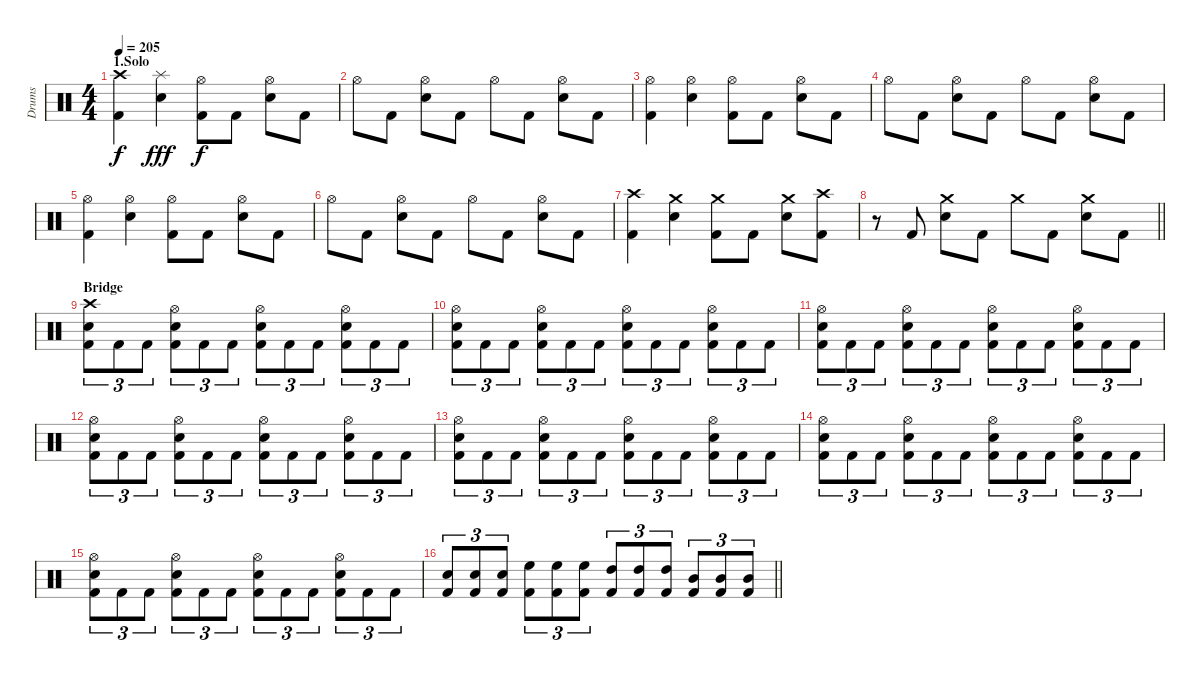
\track ("Drums" "Drums") {instrument percussion}
\staff {score}
\articulation defaults
\ts (4 4)
\section ("" "1.Solo")
\tempo 205
\clef neutral
\ks c
("Crash high (hit)" "Kick (hit) 2").4{dy f} ("Splash (hit)" "Electric Snare (hit)").4{dy fff} ("Hi-Hat (open)" "Kick (hit) 2").8{dy f} "Kick (hit) 2".8 ("Hi-Hat (open)" "Electric Snare (hit)").8 "Kick (hit) 2".8 |
"Hi-Hat (open)".8 "Kick (hit) 2".8 ("Hi-Hat (open)" "Electric Snare (hit)").8 "Kick (hit) 2".8 "Hi-Hat (open)".8 "Kick (hit) 2".8 ("Hi-Hat (open)" "Electric Snare (hit)").8 "Kick (hit) 2".8 |
("Hi-Hat (open)" "Kick (hit) 2").4 ("Hi-Hat (open)" "Electric Snare (hit)").4 ("Hi-Hat (open)" "Kick (hit) 2").8 "Kick (hit) 2".8 ("Hi-Hat (open)" "Electric Snare (hit)").8 "Kick (hit) 2".8 |
"Hi-Hat (open)".8 "Kick (hit) 2".8 ("Hi-Hat (open)" "Electric Snare (hit)").8 "Kick (hit) 2".8 "Hi-Hat (open)".8 "Kick (hit) 2".8 ("Hi-Hat (open)" "Electric Snare (hit)").8 "Kick (hit) 2".8 |
("Hi-Hat (open)" "Kick (hit) 2").4 ("Hi-Hat (open)" "Electric Snare (hit)").4 ("Hi-Hat (open)" "Kick (hit) 2").8 "Kick (hit) 2".8 ("Hi-Hat (open)" "Electric Snare (hit)").8 "Kick (hit) 2".8 |
"Hi-Hat (open)".8 "Kick (hit) 2".8 ("Hi-Hat (open)" "Electric Snare (hit)").8 "Kick (hit) 2".8 "Hi-Hat (open)".8 "Kick (hit) 2".8 ("Hi-Hat (open)" "Electric Snare (hit)").8 "Kick (hit) 2".8 |
("Crash high (hit)" "Kick (hit) 2").4 ("Crash medium (hit)" "Electric Snare (hit)").4 ("Crash medium (hit)" "Kick (hit) 2").8 "Kick (hit) 2".8 ("Crash medium (hit)" "Electric Snare (hit)").8 ("Crash high (hit)" "Kick (hit) 2").8 |
\barLineRight lightlight
r.8 "Kick (hit) 2".8 ("Crash medium (hit)" "Electric Snare (hit)").8 "Kick (hit) 2".8 "Crash medium (hit)".8 "Kick (hit) 2".8 ("Crash medium (hit)" "Electric Snare (hit)").8 "Kick (hit) 2".8 |
\section ("" "Bridge")
("Crash high (hit)" "Electric Snare (hit)" "Kick (hit) 2").8{tu (3 2)} "Kick (hit) 2".8{tu (3 2)} "Kick (hit) 2".8{tu (3 2)} ("Hi-Hat (open)" "Electric Snare (hit)" "Kick (hit) 2").8{tu (3 2)} "Kick (hit) 2".8{tu (3 2)} "Kick (hit) 2".8{tu (3 2)} ("Hi-Hat (open)" "Electric Snare (hit)" "Kick (hit) 2").8{tu (3 2)} "Kick (hit) 2".8{tu (3 2)} "Kick (hit) 2".8{tu (3 2)} ("Hi-Hat (open)" "Electric Snare (hit)" "Kick (hit) 2").8{tu (3 2)} "Kick (hit) 2".8{tu (3 2)} "Kick (hit) 2".8{tu (3 2)} |
("Hi-Hat (open)" "Electric Snare (hit)" "Kick (hit) 2").8{tu (3 2)} "Kick (hit) 2".8{tu (3 2)} "Kick (hit) 2".8{tu (3 2)} ("Hi-Hat (open)" "Electric Snare (hit)" "Kick (hit) 2").8{tu (3 2)} "Kick (hit) 2".8{tu (3 2)} "Kick (hit) 2".8{tu (3 2)} ("Hi-Hat (open)" "Electric Snare (hit)" "Kick (hit) 2").8{tu (3 2)} "Kick (hit) 2".8{tu (3 2)} "Kick (hit) 2".8{tu (3 2)} ("Hi-Hat (open)" "Electric Snare (hit)" "Kick (hit) 2").8{tu (3 2)} "Kick (hit) 2".8{tu (3 2)} "Kick (hit) 2".8{tu (3 2)} |
("Hi-Hat (open)" "Electric Snare (hit)" "Kick (hit) 2").8{tu (3 2)} "Kick (hit) 2".8{tu (3 2)} "Kick (hit) 2".8{tu (3 2)} ("Hi-Hat (open)" "Electric Snare (hit)" "Kick (hit) 2").8{tu (3 2)} "Kick (hit) 2".8{tu (3 2)} "Kick (hit) 2".8{tu (3 2)} ("Hi-Hat (open)" "Electric Snare (hit)" "Kick (hit) 2").8{tu (3 2)} "Kick (hit) 2".8{tu (3 2)} "Kick (hit) 2".8{tu (3 2)} ("Hi-Hat (open)" "Electric Snare (hit)" "Kick (hit) 2").8{tu (3 2)} "Kick (hit) 2".8{tu (3 2)} "Kick (hit) 2".8{tu (3 2)} |
("Hi-Hat (open)" "Electric Snare (hit)" "Kick (hit) 2").8{tu (3 2)} "Kick (hit) 2".8{tu (3 2)} "Kick (hit) 2".8{tu (3 2)} ("Hi-Hat (open)" "Electric Snare (hit)" "Kick (hit) 2").8{tu (3 2)} "Kick (hit) 2".8{tu (3 2)} "Kick (hit) 2".8{tu (3 2)} ("Hi-Hat (open)" "Electric Snare (hit)" "Kick (hit) 2").8{tu (3 2)} "Kick (hit) 2".8{tu (3 2)} "Kick (hit) 2".8{tu (3 2)} ("Hi-Hat (open)" "Electric Snare (hit)" "Kick (hit) 2").8{tu (3 2)} "Kick (hit) 2".8{tu (3 2)} "Kick (hit) 2".8{tu (3 2)} |
("Hi-Hat (open)" "Electric Snare (hit)" "Kick (hit) 2").8{tu (3 2)} "Kick (hit) 2".8{tu (3 2)} "Kick (hit) 2".8{tu (3 2)} ("Hi-Hat (open)" "Electric Snare (hit)" "Kick (hit) 2").8{tu (3 2)} "Kick (hit) 2".8{tu (3 2)} "Kick (hit) 2".8{tu (3 2)} ("Hi-Hat (open)" "Electric Snare (hit)" "Kick (hit) 2").8{tu (3 2)} "Kick (hit) 2".8{tu (3 2)} "Kick (hit) 2".8{tu (3 2)} ("Hi-Hat (open)" "Electric Snare (hit)" "Kick (hit) 2").8{tu (3 2)} "Kick (hit) 2".8{tu (3 2)} "Kick (hit) 2".8{tu (3 2)} |
("Hi-Hat (open)" "Electric Snare (hit)" "Kick (hit) 2").8{tu (3 2)} "Kick (hit) 2".8{tu (3 2)} "Kick (hit) 2".8{tu (3 2)} ("Hi-Hat (open)" "Electric Snare (hit)" "Kick (hit) 2").8{tu (3 2)} "Kick (hit) 2".8{tu (3 2)} "Kick (hit) 2".8{tu (3 2)} ("Hi-Hat (open)" "Electric Snare (hit)" "Kick (hit) 2").8{tu (3 2)} "Kick (hit) 2".8{tu (3 2)} "Kick (hit) 2".8{tu (3 2)} ("Hi-Hat (open)" "Electric Snare (hit)" "Kick (hit) 2").8{tu (3 2)} "Kick (hit) 2".8{tu (3 2)} "Kick (hit) 2".8{tu (3 2)} |
("Hi-Hat (open)" "Electric Snare (hit)" "Kick (hit) 2").8{tu (3 2)} "Kick (hit) 2".8{tu (3 2)} "Kick (hit) 2".8{tu (3 2)} ("Hi-Hat (open)" "Electric Snare (hit)" "Kick (hit) 2").8{tu (3 2)} "Kick (hit) 2".8{tu (3 2)} "Kick (hit) 2".8{tu (3 2)} ("Hi-Hat (open)" "Electric Snare (hit)" "Kick (hit) 2").8{tu (3 2)} "Kick (hit) 2".8{tu (3 2)} "Kick (hit) 2".8{tu (3 2)} ("Hi-Hat (open)" "Electric Snare (hit)" "Kick (hit) 2").8{tu (3 2)} "Kick (hit) 2".8{tu (3 2)} "Kick (hit) 2".8{tu (3 2)} |
\barLineRight lightlight
("Electric Snare (hit)" "Kick (hit) 2").8{tu (3 2)} ("Electric Snare (hit)" "Kick (hit) 2").8{tu (3 2)} ("Electric Snare (hit)" "Kick (hit) 2").8{tu (3 2)} ("High Floor Tom (hit)" "Kick (hit) 2").8{tu (3 2)} ("High Floor Tom (hit)" "Kick (hit) 2").8{tu (3 2)} ("High Floor Tom (hit)" "Kick (hit) 2").8{tu (3 2)} ("High Tom (hit)" "Kick (hit) 2").8{tu (3 2)} ("High Tom (hit)" "Kick (hit) 2").8{tu (3 2)} ("High Tom (hit)" "Kick (hit) 2").8{tu (3 2)} ("Mid Tom (hit)" "Kick (hit) 2").8{tu (3 2)} ("Mid Tom (hit)" "Kick (hit) 2").8{tu (3 2)} ("Mid Tom (hit)" "Kick (hit) 2").8{tu (3 2)}
